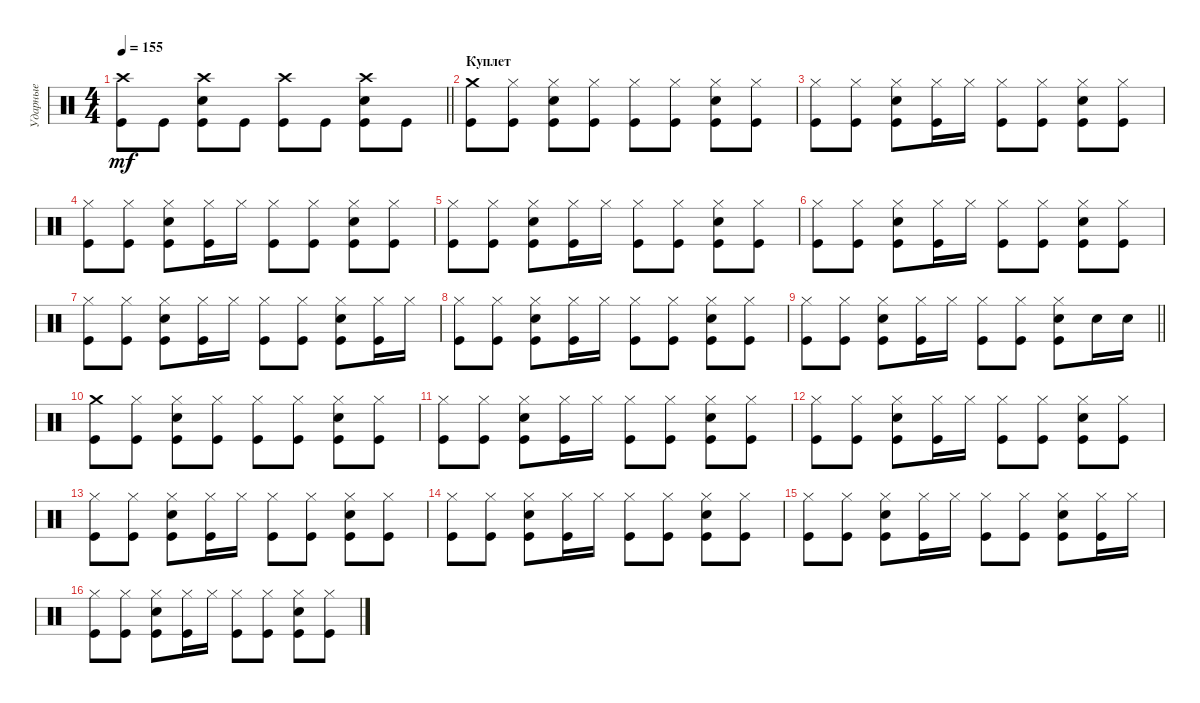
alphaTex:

\track ("Ударные" "Ударные") {instrument percussion}
\staff {score}
\articulation defaults
\ts (4 4)
\tempo 155
\clef neutral
\barLineRight lightlight
\ks c
("Crash high (hit)" "Kick (hit)").8{dy mf} "Kick (hit)".8 ("Crash high (hit)" "Kick (hit)" "Electric Snare (hit)").8 "Kick (hit)".8 ("Crash high (hit)" "Kick (hit)").8 "Kick (hit)".8 ("Crash high (hit)" "Kick (hit)" "Electric Snare (hit)").8 "Kick (hit)".8 |
\section ("" "Куплет")
("Crash medium (hit)" "Kick (hit)").8 ("Hi-Hat (closed)" "Kick (hit)").8 ("Hi-Hat (closed)" "Electric Snare (hit)" "Kick (hit)").8 ("Hi-Hat (closed)" "Kick (hit)").8 ("Hi-Hat (closed)" "Kick (hit)").8 ("Hi-Hat (closed)" "Kick (hit)").8 ("Hi-Hat (closed)" "Electric Snare (hit)" "Kick (hit)").8 ("Hi-Hat (closed)" "Kick (hit)").8 |
("Hi-Hat (closed)" "Kick (hit)").8 ("Hi-Hat (closed)" "Kick (hit)").8 ("Hi-Hat (closed)" "Electric Snare (hit)" "Kick (hit)").8 ("Hi-Hat (closed)" "Kick (hit)").16 "Hi-Hat (closed)".16 ("Hi-Hat (closed)" "Kick (hit)").8 ("Hi-Hat (closed)" "Kick (hit)").8 ("Hi-Hat (closed)" "Electric Snare (hit)" "Kick (hit)").8 ("Hi-Hat (closed)" "Kick (hit)").8 |
("Hi-Hat (closed)" "Kick (hit)").8 ("Hi-Hat (closed)" "Kick (hit)").8 ("Hi-Hat (closed)" "Electric Snare (hit)" "Kick (hit)").8 ("Hi-Hat (closed)" "Kick (hit)").16 "Hi-Hat (closed)".16 ("Hi-Hat (closed)" "Kick (hit)").8 ("Hi-Hat (closed)" "Kick (hit)").8 ("Hi-Hat (closed)" "Electric Snare (hit)" "Kick (hit)").8 ("Hi-Hat (closed)" "Kick (hit)").8 |
("Hi-Hat (closed)" "Kick (hit)").8 ("Hi-Hat (closed)" "Kick (hit)").8 ("Hi-Hat (closed)" "Electric Snare (hit)" "Kick (hit)").8 ("Hi-Hat (closed)" "Kick (hit)").16 "Hi-Hat (closed)".16 ("Hi-Hat (closed)" "Kick (hit)").8 ("Hi-Hat (closed)" "Kick (hit)").8 ("Hi-Hat (closed)" "Electric Snare (hit)" "Kick (hit)").8 ("Hi-Hat (closed)" "Kick (hit)").8 |
("Hi-Hat (closed)" "Kick (hit)").8 ("Hi-Hat (closed)" "Kick (hit)").8 ("Hi-Hat (closed)" "Electric Snare (hit)" "Kick (hit)").8 ("Hi-Hat (closed)" "Kick (hit)").16 "Hi-Hat (closed)".16 ("Hi-Hat (closed)" "Kick (hit)").8 ("Hi-Hat (closed)" "Kick (hit)").8 ("Hi-Hat (closed)" "Electric Snare (hit)" "Kick (hit)").8 ("Hi-Hat (closed)" "Kick (hit)").8 |
("Hi-Hat (closed)" "Kick (hit)").8 ("Hi-Hat (closed)" "Kick (hit)").8 ("Hi-Hat (closed)" "Electric Snare (hit)" "Kick (hit)").8 ("Hi-Hat (closed)" "Kick (hit)").16 "Hi-Hat (closed)".16 ("Hi-Hat (closed)" "Kick (hit)").8 ("Hi-Hat (closed)" "Kick (hit)").8 ("Hi-Hat (closed)" "Electric Snare (hit)" "Kick (hit)").8 ("Hi-Hat (closed)" "Kick (hit)").16 "Hi-Hat (closed)".16 |
("Hi-Hat (closed)" "Kick (hit)").8 ("Hi-Hat (closed)" "Kick (hit)").8 ("Hi-Hat (closed)" "Electric Snare (hit)" "Kick (hit)").8 ("Hi-Hat (closed)" "Kick (hit)").16 "Hi-Hat (closed)".16 ("Hi-Hat (closed)" "Kick (hit)").8 ("Hi-Hat (closed)" "Kick (hit)").8 ("Hi-Hat (closed)" "Electric Snare (hit)" "Kick (hit)").8 ("Hi-Hat (closed)" "Kick (hit)").8 |
\barLineRight lightlight
("Hi-Hat (closed)" "Kick (hit)").8 ("Hi-Hat (closed)" "Kick (hit)").8 ("Hi-Hat (closed)" "Electric Snare (hit)" "Kick (hit)").8 ("Hi-Hat (closed)" "Kick (hit)").16 "Hi-Hat (closed)".16 ("Hi-Hat (closed)" "Kick (hit)").8 ("Hi-Hat (closed)" "Kick (hit)").8 ("Hi-Hat (closed)" "Electric Snare (hit)" "Kick (hit)").8 "Electric Snare (hit)".16 "Electric Snare (hit)".16 |
\section ("" " ")
("Crash medium (hit)" "Kick (hit)").8 ("Hi-Hat (closed)" "Kick (hit)").8 ("Hi-Hat (closed)" "Electric Snare (hit)" "Kick (hit)").8 ("Hi-Hat (closed)" "Kick (hit)").8 ("Hi-Hat (closed)" "Kick (hit)").8 ("Hi-Hat (closed)" "Kick (hit)").8 ("Hi-Hat (closed)" "Electric Snare (hit)" "Kick (hit)").8 ("Hi-Hat (closed)" "Kick (hit)").8 |
("Hi-Hat (closed)" "Kick (hit)").8 ("Hi-Hat (closed)" "Kick (hit)").8 ("Hi-Hat (closed)" "Electric Snare (hit)" "Kick (hit)").8 ("Hi-Hat (closed)" "Kick (hit)").16 "Hi-Hat (closed)".16 ("Hi-Hat (closed)" "Kick (hit)").8 ("Hi-Hat (closed)" "Kick (hit)").8 ("Hi-Hat (closed)" "Electric Snare (hit)" "Kick (hit)").8 ("Hi-Hat (closed)" "Kick (hit)").8 |
("Hi-Hat (closed)" "Kick (hit)").8 ("Hi-Hat (closed)" "Kick (hit)").8 ("Hi-Hat (closed)" "Electric Snare (hit)" "Kick (hit)").8 ("Hi-Hat (closed)" "Kick (hit)").16 "Hi-Hat (closed)".16 ("Hi-Hat (closed)" "Kick (hit)").8 ("Hi-Hat (closed)" "Kick (hit)").8 ("Hi-Hat (closed)" "Electric Snare (hit)" "Kick (hit)").8 ("Hi-Hat (closed)" "Kick (hit)").8 |
("Hi-Hat (closed)" "Kick (hit)").8 ("Hi-Hat (closed)" "Kick (hit)").8 ("Hi-Hat (closed)" "Electric Snare (hit)" "Kick (hit)").8 ("Hi-Hat (closed)" "Kick (hit)").16 "Hi-Hat (closed)".16 ("Hi-Hat (closed)" "Kick (hit)").8 ("Hi-Hat (closed)" "Kick (hit)").8 ("Hi-Hat (closed)" "Electric Snare (hit)" "Kick (hit)").8 ("Hi-Hat (closed)" "Kick (hit)").8 |
("Hi-Hat (closed)" "Kick (hit)").8 ("Hi-Hat (closed)" "Kick (hit)").8 ("Hi-Hat (closed)" "Electric Snare (hit)" "Kick (hit)").8 ("Hi-Hat (closed)" "Kick (hit)").16 "Hi-Hat (closed)".16 ("Hi-Hat (closed)" "Kick (hit)").8 ("Hi-Hat (closed)" "Kick (hit)").8 ("Hi-Hat (closed)" "Electric Snare (hit)" "Kick (hit)").8 ("Hi-Hat (closed)" "Kick (hit)").8 |
("Hi-Hat (closed)" "Kick (hit)").8 ("Hi-Hat (closed)" "Kick (hit)").8 ("Hi-Hat (closed)" "Electric Snare (hit)" "Kick (hit)").8 ("Hi-Hat (closed)" "Kick (hit)").16 "Hi-Hat (closed)".16 ("Hi-Hat (closed)" "Kick (hit)").8 ("Hi-Hat (closed)" "Kick (hit)").8 ("Hi-Hat (closed)" "Electric Snare (hit)" "Kick (hit)").8 ("Hi-Hat (closed)" "Kick (hit)").16 "Hi-Hat (closed)".16 |
("Hi-Hat (closed)" "Kick (hit)").8 ("Hi-Hat (closed)" "Kick (hit)").8 ("Hi-Hat (closed)" "Electric Snare (hit)" "Kick (hit)").8 ("Hi-Hat (closed)" "Kick (hit)").16 "Hi-Hat (closed)".16 ("Hi-Hat (closed)" "Kick (hit)").8 ("Hi-Hat (closed)" "Kick (hit)").8 ("Hi-Hat (closed)" "Electric Snare (hit)" "Kick (hit)").8 ("Hi-Hat (closed)" "Kick (hit)").8
